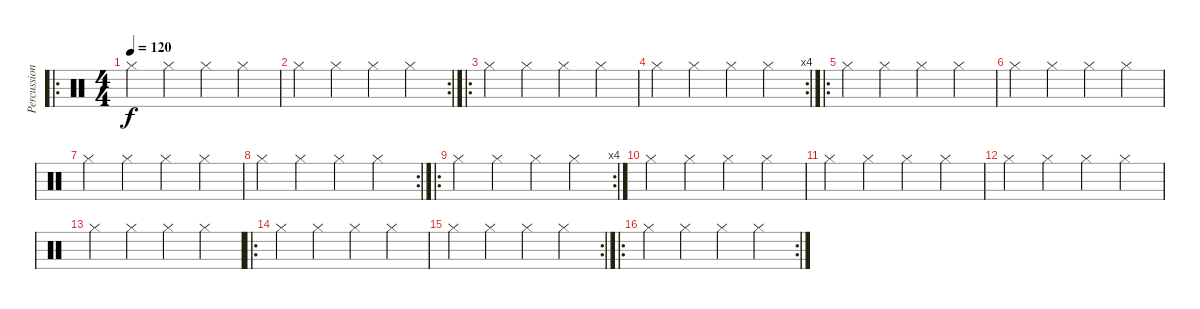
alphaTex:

\track ("Percussioni" "Percussion") {instrument percussion}
\staff {score}
\articulation defaults
\ro
\ts (4 4)
\tempo 120
\clef neutral
\ks c "Hi-Hat (closed)".4{dy f} "Hi-Hat (closed)".4 "Hi-Hat (closed)".4 "Hi-Hat (closed)".4
|
\rc 2 "Hi-Hat (closed)".4 "Hi-Hat (closed)".4 "Hi-Hat (closed)".4 "Hi-Hat (closed)".4
|
\ro "Hi-Hat (closed)".4 "Hi-Hat (closed)".4 "Hi-Hat (closed)".4 "Hi-Hat (closed)".4
|
\rc 4 "Hi-Hat (closed)".4 "Hi-Hat (closed)".4 "Hi-Hat (closed)".4 "Hi-Hat (closed)".4
|
\ro "Hi-Hat (closed)".4 "Hi-Hat (closed)".4 "Hi-Hat (closed)".4 "Hi-Hat (closed)".4
|
"Hi-Hat (closed)".4 "Hi-Hat (closed)".4 "Hi-Hat (closed)".4 "Hi-Hat (closed)".4 |
"Hi-Hat (closed)".4 "Hi-Hat (closed)".4 "Hi-Hat (closed)".4 "Hi-Hat (closed)".4 |
\rc 2 "Hi-Hat (closed)".4 "Hi-Hat (closed)".4 "Hi-Hat (closed)".4 "Hi-Hat (closed)".4
|
\ro
\rc 4 "Hi-Hat (closed)".4 "Hi-Hat (closed)".4 "Hi-Hat (closed)".4 "Hi-Hat (closed)".4
|
"Hi-Hat (closed)".4 "Hi-Hat (closed)".4 "Hi-Hat (closed)".4 "Hi-Hat (closed)".4 |
"Hi-Hat (closed)".4 "Hi-Hat (closed)".4 "Hi-Hat (closed)".4 "Hi-Hat (closed)".4 |
"Hi-Hat (closed)".4 "Hi-Hat (closed)".4 "Hi-Hat (closed)".4 "Hi-Hat (closed)".4 |
"Hi-Hat (closed)".4 "Hi-Hat (closed)".4 "Hi-Hat (closed)".4 "Hi-Hat (closed)".4 |
\ro "Hi-Hat (closed)".4 "Hi-Hat (closed)".4 "Hi-Hat (closed)".4 "Hi-Hat (closed)".4
|
\rc 2 "Hi-Hat (closed)".4 "Hi-Hat (closed)".4 "Hi-Hat (closed)".4 "Hi-Hat (closed)".4
|
\ro
\rc 2 "Hi-Hat (closed)".4 "Hi-Hat (closed)".4 "Hi-Hat (closed)".4 "Hi-Hat (closed)".4
